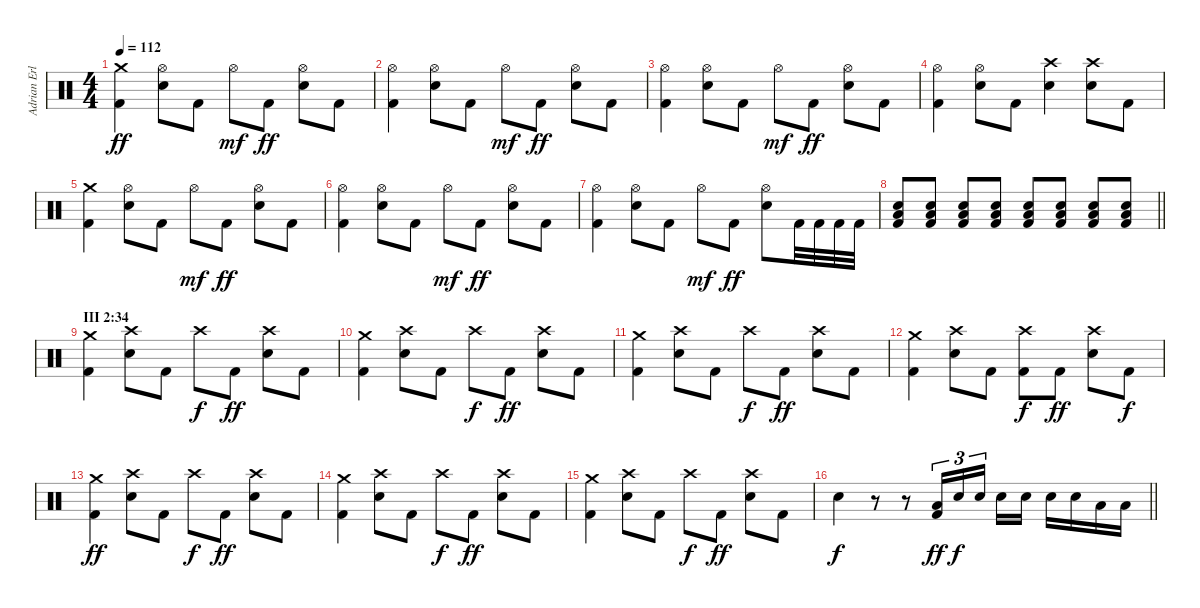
\track ("Adrian Erlandsson (Drums)" "Adrian Erl") {instrument percussion}
\staff {score}
\articulation defaults
\ts (4 4)
\tempo 112
\clef neutral
\ks c
("Crash medium (hit)" "Kick (hit) 2").4{dy ff} ("Hi-Hat (open)" "Electric Snare (hit)").8 "Kick (hit) 2".8 "Hi-Hat (open)".8{dy mf} "Kick (hit) 2".8{dy ff} ("Hi-Hat (open)" "Electric Snare (hit)").8 "Kick (hit) 2".8 |
("Hi-Hat (open)" "Kick (hit) 2").4 ("Hi-Hat (open)" "Electric Snare (hit)").8 "Kick (hit) 2".8 "Hi-Hat (open)".8{dy mf} "Kick (hit) 2".8{dy ff} ("Hi-Hat (open)" "Electric Snare (hit)").8 "Kick (hit) 2".8 |
("Hi-Hat (open)" "Kick (hit) 2").4 ("Hi-Hat (open)" "Electric Snare (hit)").8 "Kick (hit) 2".8 "Hi-Hat (open)".8{dy mf} "Kick (hit) 2".8{dy ff} ("Hi-Hat (open)" "Electric Snare (hit)").8 "Kick (hit) 2".8 |
("Hi-Hat (open)" "Kick (hit) 2").4 ("Hi-Hat (open)" "Electric Snare (hit)").8 "Kick (hit) 2".8 ("Crash high (hit)" "Electric Snare (hit)").4 ("Crash high (hit)" "Electric Snare (hit)").8 "Kick (hit) 2".8 |
("Crash medium (hit)" "Kick (hit) 2").4 ("Hi-Hat (open)" "Electric Snare (hit)").8 "Kick (hit) 2".8 "Hi-Hat (open)".8{dy mf} "Kick (hit) 2".8{dy ff} ("Hi-Hat (open)" "Electric Snare (hit)").8 "Kick (hit) 2".8 |
("Hi-Hat (open)" "Kick (hit) 2").4 ("Hi-Hat (open)" "Electric Snare (hit)").8 "Kick (hit) 2".8 "Hi-Hat (open)".8{dy mf} "Kick (hit) 2".8{dy ff} ("Hi-Hat (open)" "Electric Snare (hit)").8 "Kick (hit) 2".8 |
("Hi-Hat (open)" "Kick (hit) 2").4 ("Hi-Hat (open)" "Electric Snare (hit)").8 "Kick (hit) 2".8 "Hi-Hat (open)".8{dy mf} "Kick (hit) 2".8{dy ff} ("Hi-Hat (open)" "Electric Snare (hit)").8 "Kick (hit) 2".32 "Kick (hit) 2".32 "Kick (hit) 2".32 "Kick (hit) 2".32 |
\barLineRight lightlight
("Electric Snare (hit)" "Low Floor Tom (hit)" "Kick (hit) 2").8 ("Electric Snare (hit)" "Low Floor Tom (hit)" "Kick (hit) 2").8 ("Electric Snare (hit)" "Low Floor Tom (hit)" "Kick (hit) 2").8 ("Electric Snare (hit)" "Low Floor Tom (hit)" "Kick (hit) 2").8 ("Electric Snare (hit)" "Low Floor Tom (hit)" "Kick (hit) 2").8 ("Electric Snare (hit)" "Low Floor Tom (hit)" "Kick (hit) 2").8 ("Electric Snare (hit)" "Low Floor Tom (hit)" "Kick (hit) 2").8 ("Electric Snare (hit)" "Low Floor Tom (hit)" "Kick (hit) 2").8 |
\section ("" "III 2:34")
("Crash medium (hit)" "Kick (hit) 2").4 ("Crash high (hit)" "Electric Snare (hit)").8 "Kick (hit) 2".8 "Crash high (hit)".8{dy f} "Kick (hit) 2".8{dy ff} ("Crash high (hit)" "Electric Snare (hit)").8 "Kick (hit) 2".8 |
("Crash medium (hit)" "Kick (hit) 2").4 ("Crash high (hit)" "Electric Snare (hit)").8 "Kick (hit) 2".8 "Crash high (hit)".8{dy f} "Kick (hit) 2".8{dy ff} ("Crash high (hit)" "Electric Snare (hit)").8 "Kick (hit) 2".8 |
("Crash medium (hit)" "Kick (hit) 2").4 ("Crash high (hit)" "Electric Snare (hit)").8 "Kick (hit) 2".8 "Crash high (hit)".8{dy f} "Kick (hit) 2".8{dy ff} ("Crash high (hit)" "Electric Snare (hit)").8 "Kick (hit) 2".8 |
("Crash medium (hit)" "Kick (hit) 2").4 ("Crash high (hit)" "Electric Snare (hit)").8 "Kick (hit) 2".8 ("Crash high (hit)" "Kick (hit) 2").8{dy f} "Kick (hit) 2".8{dy ff} ("Crash high (hit)" "Electric Snare (hit)").8 "Kick (hit) 2".8{dy f} |
("Crash medium (hit)" "Kick (hit) 2").4{dy ff} ("Crash high (hit)" "Electric Snare (hit)").8 "Kick (hit) 2".8 "Crash high (hit)".8{dy f} "Kick (hit) 2".8{dy ff} ("Crash high (hit)" "Electric Snare (hit)").8 "Kick (hit) 2".8 |
("Crash medium (hit)" "Kick (hit) 2").4 ("Crash high (hit)" "Electric Snare (hit)").8 "Kick (hit) 2".8 "Crash high (hit)".8{dy f} "Kick (hit) 2".8{dy ff} ("Crash high (hit)" "Electric Snare (hit)").8 "Kick (hit) 2".8 |
("Crash medium (hit)" "Kick (hit) 2").4 ("Crash high (hit)" "Electric Snare (hit)").8 "Kick (hit) 2".8 "Crash high (hit)".8{dy f} "Kick (hit) 2".8{dy ff} ("Crash high (hit)" "Electric Snare (hit)").8 "Kick (hit) 2".8 |
\barLineRight lightlight "Electric Snare (hit)".4{dy f}
r.8 r.8 ("Low Tom (hit)" "Kick (hit) 2").16{tu (3 2) dy ff} "Electric Snare (hit)".16{tu (3 2) dy f} "Electric Snare (hit)".16{tu (3 2) beam splitsecondary} "Electric Snare (hit)".16 "Electric Snare (hit)".16 "Electric Snare (hit)".16 "Electric Snare (hit)".16 "Low Tom (hit)".16 "Low Tom (hit)".16
